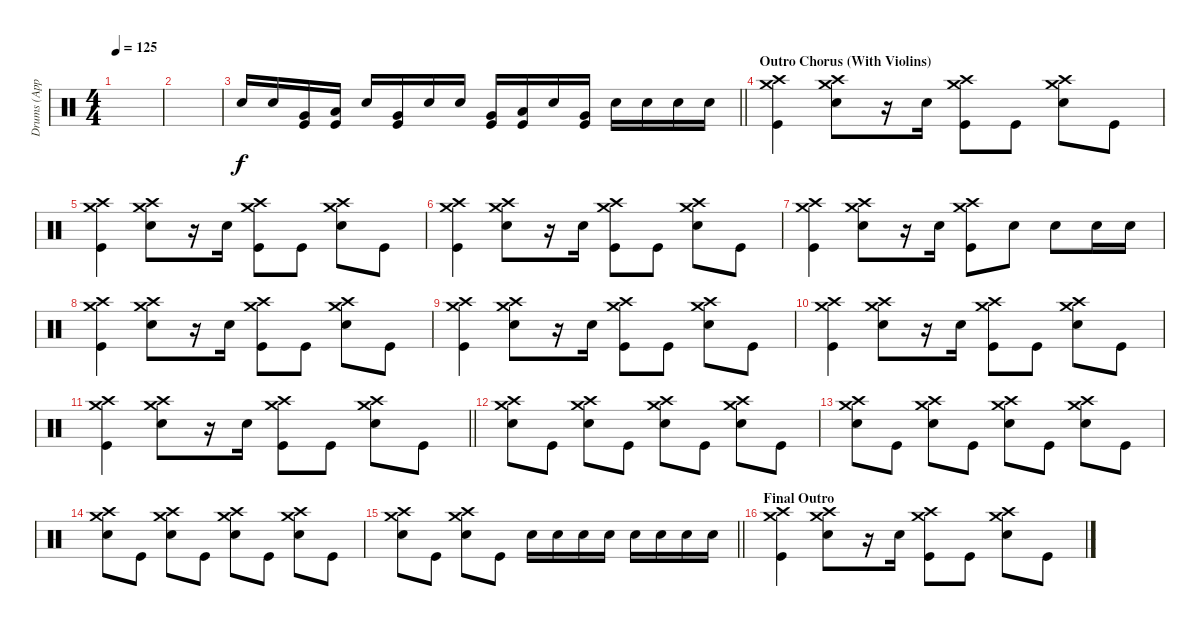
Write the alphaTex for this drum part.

\track ("Drums (Approx.)" "Drums (App") {instrument percussion}
\staff {score}
\articulation defaults
\ts (4 4)
\tempo 125
\clef neutral
\ks c
|
|
\barLineRight lightlight "Electric Snare (hit)".16 "Electric Snare (hit)".16
("Very Low Tom (hit)" "Kick (hit)").16 ("Low Floor Tom (hit)" "Kick (hit)").16 "Electric Snare (hit)".16 ("Very Low Tom (hit)" "Kick (hit)").16 "Electric Snare (hit)".16 "Electric Snare (hit)".16 ("Very Low Tom (hit)" "Kick (hit)").16 ("Low Floor Tom (hit)" "Kick (hit)").16 "Electric Snare (hit)".16 ("Very Low Tom (hit)" "Kick (hit)").16 "Electric Snare (hit)".16 "Electric Snare (hit)".16 "Electric Snare (hit)".16 "Electric Snare (hit)".16 |
\section ("" "Outro Chorus (With Violins)")
("Crash medium (hit)" "Crash high (hit)" "Kick (hit)").4 ("Crash medium (hit)" "Crash high (hit)" "Electric Snare (hit)").8 r.16 "Electric Snare (hit)".16 ("Crash medium (hit)" "Crash high (hit)" "Kick (hit)").8 "Kick (hit)".8 ("Crash medium (hit)" "Crash high (hit)" "Electric Snare (hit)").8 "Kick (hit)".8 |
("Crash medium (hit)" "Crash high (hit)" "Kick (hit)").4 ("Crash medium (hit)" "Crash high (hit)" "Electric Snare (hit)").8 r.16 "Electric Snare (hit)".16 ("Crash medium (hit)" "Crash high (hit)" "Kick (hit)").8 "Kick (hit)".8 ("Crash medium (hit)" "Crash high (hit)" "Electric Snare (hit)").8 "Kick (hit)".8 |
("Crash medium (hit)" "Crash high (hit)" "Kick (hit)").4 ("Crash medium (hit)" "Crash high (hit)" "Electric Snare (hit)").8 r.16 "Electric Snare (hit)".16 ("Crash medium (hit)" "Crash high (hit)" "Kick (hit)").8 "Kick (hit)".8 ("Crash medium (hit)" "Crash high (hit)" "Electric Snare (hit)").8 "Kick (hit)".8 |
("Crash medium (hit)" "Crash high (hit)" "Kick (hit)").4 ("Crash medium (hit)" "Crash high (hit)" "Electric Snare (hit)").8 r.16 "Electric Snare (hit)".16 ("Crash medium (hit)" "Crash high (hit)" "Kick (hit)").8 "Electric Snare (hit)".8 "Electric Snare (hit)".8 "Electric Snare (hit)".16 "Electric Snare (hit)".16 |
("Crash medium (hit)" "Crash high (hit)" "Kick (hit)").4 ("Crash medium (hit)" "Crash high (hit)" "Electric Snare (hit)").8 r.16 "Electric Snare (hit)".16 ("Crash medium (hit)" "Crash high (hit)" "Kick (hit)").8 "Kick (hit)".8 ("Crash medium (hit)" "Crash high (hit)" "Electric Snare (hit)").8 "Kick (hit)".8 |
("Crash medium (hit)" "Crash high (hit)" "Kick (hit)").4 ("Crash medium (hit)" "Crash high (hit)" "Electric Snare (hit)").8 r.16 "Electric Snare (hit)".16 ("Crash medium (hit)" "Crash high (hit)" "Kick (hit)").8 "Kick (hit)".8 ("Crash medium (hit)" "Crash high (hit)" "Electric Snare (hit)").8 "Kick (hit)".8 |
("Crash medium (hit)" "Crash high (hit)" "Kick (hit)").4 ("Crash medium (hit)" "Crash high (hit)" "Electric Snare (hit)").8 r.16 "Electric Snare (hit)".16 ("Crash medium (hit)" "Crash high (hit)" "Kick (hit)").8 "Kick (hit)".8 ("Crash medium (hit)" "Crash high (hit)" "Electric Snare (hit)").8 "Kick (hit)".8 |
\barLineRight lightlight
("Crash medium (hit)" "Crash high (hit)" "Kick (hit)").4 ("Crash medium (hit)" "Crash high (hit)" "Electric Snare (hit)").8 r.16 "Electric Snare (hit)".16 ("Crash medium (hit)" "Crash high (hit)" "Kick (hit)").8 "Kick (hit)".8 ("Crash medium (hit)" "Crash high (hit)" "Electric Snare (hit)").8 "Kick (hit)".8 |
("Crash medium (hit)" "Crash high (hit)" "Electric Snare (hit)").8 "Kick (hit)".8 ("Crash medium (hit)" "Crash high (hit)" "Electric Snare (hit)").8 "Kick (hit)".8 ("Crash medium (hit)" "Crash high (hit)" "Electric Snare (hit)").8 "Kick (hit)".8 ("Crash medium (hit)" "Crash high (hit)" "Electric Snare (hit)").8 "Kick (hit)".8 |
("Crash medium (hit)" "Crash high (hit)" "Electric Snare (hit)").8 "Kick (hit)".8 ("Crash medium (hit)" "Crash high (hit)" "Electric Snare (hit)").8 "Kick (hit)".8 ("Crash medium (hit)" "Crash high (hit)" "Electric Snare (hit)").8 "Kick (hit)".8 ("Crash medium (hit)" "Crash high (hit)" "Electric Snare (hit)").8 "Kick (hit)".8 |
("Crash medium (hit)" "Crash high (hit)" "Electric Snare (hit)").8 "Kick (hit)".8 ("Crash medium (hit)" "Crash high (hit)" "Electric Snare (hit)").8 "Kick (hit)".8 ("Crash medium (hit)" "Crash high (hit)" "Electric Snare (hit)").8 "Kick (hit)".8 ("Crash medium (hit)" "Crash high (hit)" "Electric Snare (hit)").8 "Kick (hit)".8 |
\barLineRight lightlight
("Crash medium (hit)" "Crash high (hit)" "Electric Snare (hit)").8 "Kick (hit)".8 ("Crash medium (hit)" "Crash high (hit)" "Electric Snare (hit)").8 "Kick (hit)".8 "Electric Snare (hit)".16 "Electric Snare (hit)".16 "Electric Snare (hit)".16 "Electric Snare (hit)".16 "Electric Snare (hit)".16 "Electric Snare (hit)".16 "Electric Snare (hit)".16 "Electric Snare (hit)".16 |
\section ("" "Final Outro")
("Crash medium (hit)" "Crash high (hit)" "Kick (hit)").4 ("Crash medium (hit)" "Crash high (hit)" "Electric Snare (hit)").8 r.16 "Electric Snare (hit)".16 ("Crash medium (hit)" "Crash high (hit)" "Kick (hit)").8 "Kick (hit)".8 ("Crash medium (hit)" "Crash high (hit)" "Electric Snare (hit)").8 "Kick (hit)".8
